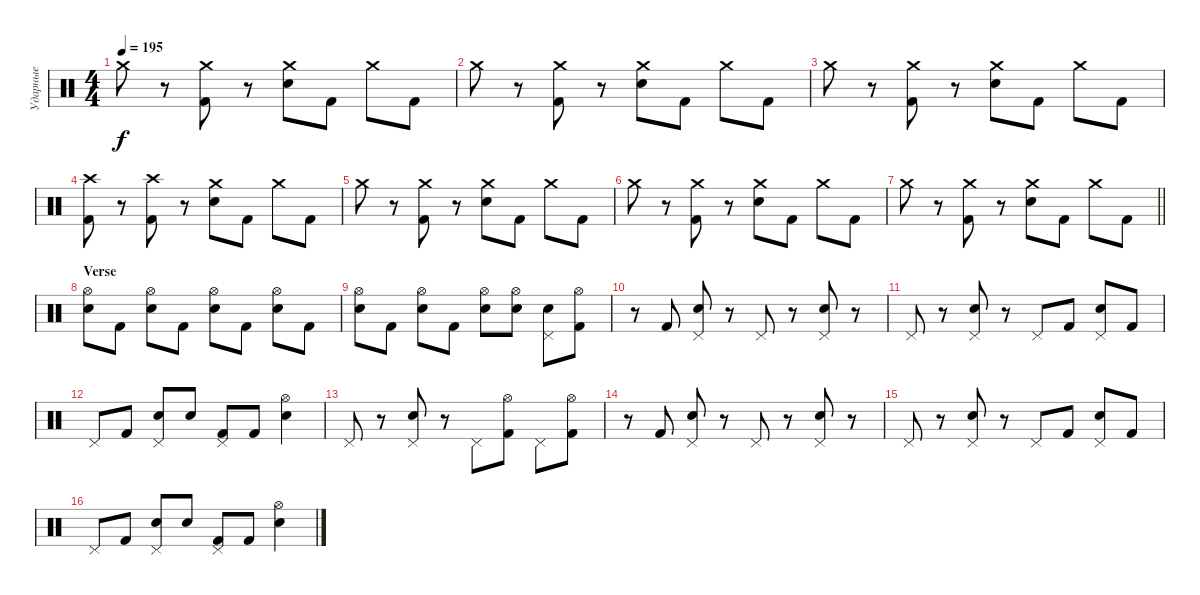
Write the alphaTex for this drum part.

\track ("Ударные" "Ударные") {instrument percussion}
\staff {score}
\articulation defaults
\ts (4 4)
\tempo 195
\clef neutral
\ks c "Crash medium (hit)".8{dy f}
r.8 ("Crash medium (hit)" "Kick (hit) 2").8 r.8 ("Crash medium (hit)" "Electric Snare (hit)").8 "Kick (hit) 2".8 "Crash medium (hit)".8 "Kick (hit) 2".8 |
"Crash medium (hit)".8 r.8 ("Crash medium (hit)" "Kick (hit) 2").8 r.8 ("Crash medium (hit)" "Electric Snare (hit)").8 "Kick (hit) 2".8 "Crash medium (hit)".8 "Kick (hit) 2".8 |
"Crash medium (hit)".8 r.8 ("Crash medium (hit)" "Kick (hit) 2").8 r.8 ("Crash medium (hit)" "Electric Snare (hit)").8 "Kick (hit) 2".8 "Crash medium (hit)".8 "Kick (hit) 2".8 |
("Crash high (hit)" "Kick (hit) 2").8 r.8 ("Crash high (hit)" "Kick (hit) 2").8 r.8 ("Crash medium (hit)" "Electric Snare (hit)").8 "Kick (hit) 2".8 "Crash medium (hit)".8 "Kick (hit) 2".8 |
"Crash medium (hit)".8 r.8 ("Crash medium (hit)" "Kick (hit) 2").8 r.8 ("Crash medium (hit)" "Electric Snare (hit)").8 "Kick (hit) 2".8 "Crash medium (hit)".8 "Kick (hit) 2".8 |
"Crash medium (hit)".8 r.8 ("Crash medium (hit)" "Kick (hit) 2").8 r.8 ("Crash medium (hit)" "Electric Snare (hit)").8 "Kick (hit) 2".8 "Crash medium (hit)".8 "Kick (hit) 2".8 |
\barLineRight lightlight "Crash medium (hit)".8
r.8 ("Crash medium (hit)" "Kick (hit) 2").8 r.8 ("Crash medium (hit)" "Electric Snare (hit)").8 "Kick (hit) 2".8 "Crash medium (hit)".8 "Kick (hit) 2".8 |
\section ("" "Verse")
("Hi-Hat (open)" "Electric Snare (hit)").8 "Kick (hit) 2".8 ("Hi-Hat (open)" "Electric Snare (hit)").8 "Kick (hit) 2".8 ("Hi-Hat (open)" "Electric Snare (hit)").8 "Kick (hit) 2".8 ("Hi-Hat (open)" "Electric Snare (hit)").8 "Kick (hit) 2".8 |
("Hi-Hat (open)" "Electric Snare (hit)").8 "Kick (hit) 2".8 ("Hi-Hat (open)" "Electric Snare (hit)").8 "Kick (hit) 2".8 ("Hi-Hat (open)" "Electric Snare (hit)").8 ("Hi-Hat (open)" "Electric Snare (hit)").8 ("Pedal Hi-Hat (hit)" "Electric Snare (hit)").8 ("Hi-Hat (open)" "Kick (hit) 2").8 |
r.8 "Kick (hit) 2".8 ("Pedal Hi-Hat (hit)" "Electric Snare (hit)").8 r.8 "Pedal Hi-Hat (hit)".8 r.8 ("Pedal Hi-Hat (hit)" "Electric Snare (hit)").8 r.8 |
"Pedal Hi-Hat (hit)".8 r.8 ("Pedal Hi-Hat (hit)" "Electric Snare (hit)").8 r.8 "Pedal Hi-Hat (hit)".8 "Kick (hit) 2".8 ("Pedal Hi-Hat (hit)" "Electric Snare (hit)").8 "Kick (hit) 2".8 |
"Pedal Hi-Hat (hit)".8 "Kick (hit) 2".8 ("Pedal Hi-Hat (hit)" "Electric Snare (hit)").8 "Electric Snare (hit)".8 ("Pedal Hi-Hat (hit)" "Kick (hit) 2").8 "Kick (hit) 2".8 ("Hi-Hat (open)" "Electric Snare (hit)").4 |
"Pedal Hi-Hat (hit)".8 r.8 ("Pedal Hi-Hat (hit)" "Electric Snare (hit)").8 r.8 "Pedal Hi-Hat (hit)".8 ("Hi-Hat (open)" "Kick (hit) 2").8 "Pedal Hi-Hat (hit)".8 ("Hi-Hat (open)" "Kick (hit) 2").8 |
r.8 "Kick (hit) 2".8 ("Pedal Hi-Hat (hit)" "Electric Snare (hit)").8 r.8 "Pedal Hi-Hat (hit)".8 r.8 ("Pedal Hi-Hat (hit)" "Electric Snare (hit)").8 r.8 |
"Pedal Hi-Hat (hit)".8 r.8 ("Pedal Hi-Hat (hit)" "Electric Snare (hit)").8 r.8 "Pedal Hi-Hat (hit)".8 "Kick (hit) 2".8 ("Pedal Hi-Hat (hit)" "Electric Snare (hit)").8 "Kick (hit) 2".8 |
"Pedal Hi-Hat (hit)".8 "Kick (hit) 2".8 ("Pedal Hi-Hat (hit)" "Electric Snare (hit)").8 "Electric Snare (hit)".8 ("Pedal Hi-Hat (hit)" "Kick (hit) 2").8 "Kick (hit) 2".8 ("Hi-Hat (open)" "Electric Snare (hit)").4
